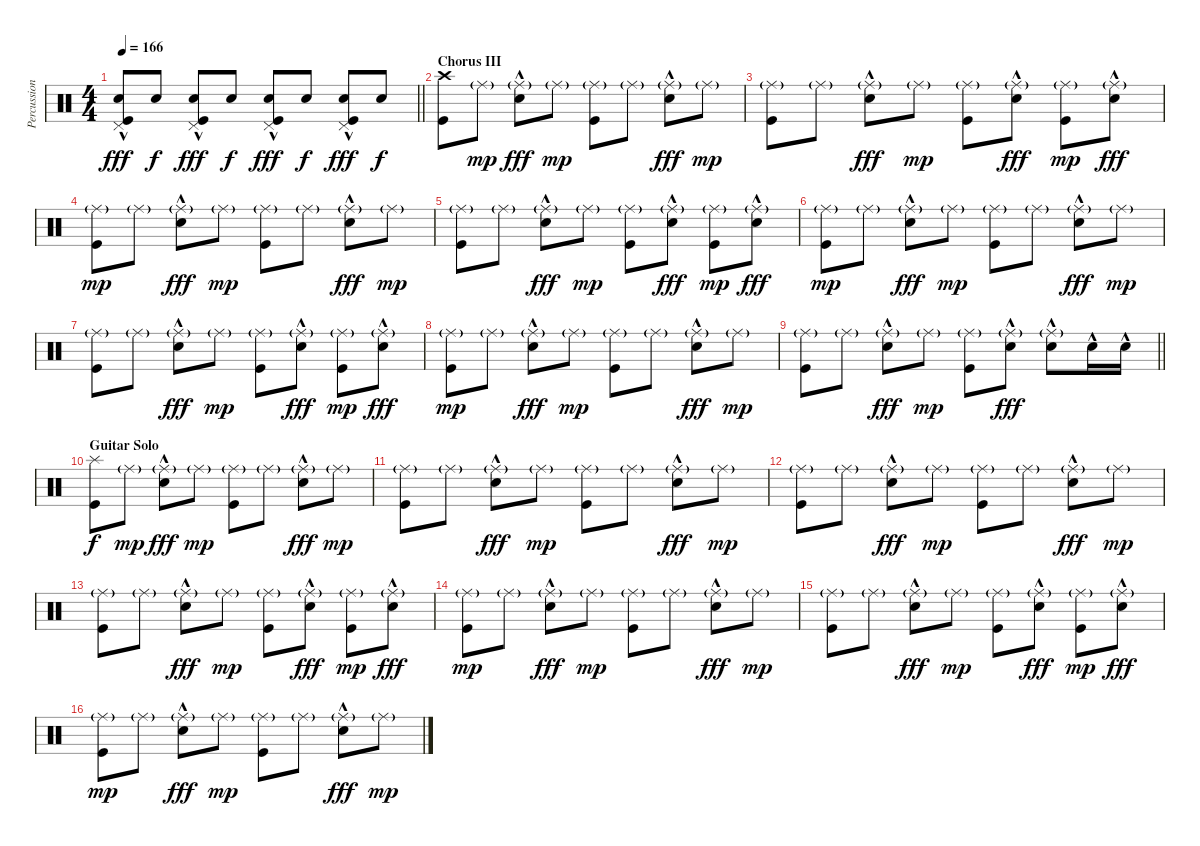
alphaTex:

\track ("Percussion" "Percussion") {instrument percussion}
\staff {score}
\articulation defaults
\ts (4 4)
\tempo 166
\clef neutral
\barLineRight lightlight
\ks c
("Pedal Hi-Hat (hit)" "Snare (hit) 2" "Kick (hit)"{hac}).8{dy fff} "Snare (hit) 2".8{dy f} ("Pedal Hi-Hat (hit)" "Snare (hit) 2" "Kick (hit)"{hac}).8{dy fff} "Snare (hit) 2".8{dy f} ("Pedal Hi-Hat (hit)" "Snare (hit) 2" "Kick (hit)"{hac}).8{dy fff} "Snare (hit) 2".8{dy f} ("Pedal Hi-Hat (hit)" "Snare (hit) 2" "Kick (hit)"{hac}).8{dy fff} "Snare (hit) 2".8{dy f} |
\section ("" "Chorus III")
("Crash high (hit)" "Kick (hit)").8 "Ride (middle)"{g}.8{dy mp} ("Ride (middle)"{g} "Snare (hit) 2"{hac}).8{dy fff} "Ride (middle)"{g}.8{dy mp} ("Ride (middle)"{g} "Kick (hit)").8 "Ride (middle)"{g}.8 ("Ride (middle)"{g} "Snare (hit) 2"{hac}).8{dy fff} "Ride (middle)"{g}.8{dy mp} |
("Ride (middle)"{g} "Kick (hit)").8 "Ride (middle)"{g}.8 ("Ride (middle)"{g} "Snare (hit) 2"{hac}).8{dy fff} "Ride (middle)"{g}.8{dy mp} ("Ride (middle)"{g} "Kick (hit)").8 ("Ride (middle)"{g} "Snare (hit) 2"{hac}).8{dy fff} ("Ride (middle)"{g} "Kick (hit)").8{dy mp} ("Ride (middle)"{g} "Snare (hit) 2"{hac}).8{dy fff} |
("Ride (middle)"{g} "Kick (hit)").8{dy mp} "Ride (middle)"{g}.8 ("Ride (middle)"{g} "Snare (hit) 2"{hac}).8{dy fff} "Ride (middle)"{g}.8{dy mp} ("Ride (middle)"{g} "Kick (hit)").8 "Ride (middle)"{g}.8 ("Ride (middle)"{g} "Snare (hit) 2"{hac}).8{dy fff} "Ride (middle)"{g}.8{dy mp} |
("Ride (middle)"{g} "Kick (hit)").8 "Ride (middle)"{g}.8 ("Ride (middle)"{g} "Snare (hit) 2"{hac}).8{dy fff} "Ride (middle)"{g}.8{dy mp} ("Ride (middle)"{g} "Kick (hit)").8 ("Ride (middle)"{g} "Snare (hit) 2"{hac}).8{dy fff} ("Ride (middle)"{g} "Kick (hit)").8{dy mp} ("Ride (middle)"{g} "Snare (hit) 2"{hac}).8{dy fff} |
("Ride (middle)"{g} "Kick (hit)").8{dy mp} "Ride (middle)"{g}.8 ("Ride (middle)"{g} "Snare (hit) 2"{hac}).8{dy fff} "Ride (middle)"{g}.8{dy mp} ("Ride (middle)"{g} "Kick (hit)").8 "Ride (middle)"{g}.8 ("Ride (middle)"{g} "Snare (hit) 2"{hac}).8{dy fff} "Ride (middle)"{g}.8{dy mp} |
("Ride (middle)"{g} "Kick (hit)").8 "Ride (middle)"{g}.8 ("Ride (middle)"{g} "Snare (hit) 2"{hac}).8{dy fff} "Ride (middle)"{g}.8{dy mp} ("Ride (middle)"{g} "Kick (hit)").8 ("Ride (middle)"{g} "Snare (hit) 2"{hac}).8{dy fff} ("Ride (middle)"{g} "Kick (hit)").8{dy mp} ("Ride (middle)"{g} "Snare (hit) 2"{hac}).8{dy fff} |
("Ride (middle)"{g} "Kick (hit)").8{dy mp} "Ride (middle)"{g}.8 ("Ride (middle)"{g} "Snare (hit) 2"{hac}).8{dy fff} "Ride (middle)"{g}.8{dy mp} ("Ride (middle)"{g} "Kick (hit)").8 "Ride (middle)"{g}.8 ("Ride (middle)"{g} "Snare (hit) 2"{hac}).8{dy fff} "Ride (middle)"{g}.8{dy mp} |
\barLineRight lightlight
("Ride (middle)"{g} "Kick (hit)").8 "Ride (middle)"{g}.8 ("Ride (middle)"{g} "Snare (hit) 2"{hac}).8{dy fff} "Ride (middle)"{g}.8{dy mp} ("Ride (middle)"{g} "Kick (hit)").8 ("Ride (middle)"{g} "Snare (hit) 2"{hac}).8{dy fff} ("Ride (middle)"{g} "Snare (hit) 2"{hac}).8 "Snare (hit) 2"{hac}.16 "Snare (hit) 2"{hac}.16 |
\section ("" "Guitar Solo")
("Splash (hit)" "Kick (hit)").8{dy f} "Ride (middle)"{g}.8{dy mp} ("Ride (middle)"{g} "Snare (hit) 2"{hac}).8{dy fff} "Ride (middle)"{g}.8{dy mp} ("Ride (middle)"{g} "Kick (hit)").8 "Ride (middle)"{g}.8 ("Ride (middle)"{g} "Snare (hit) 2"{hac}).8{dy fff} "Ride (middle)"{g}.8{dy mp} |
("Ride (middle)"{g} "Kick (hit)").8 "Ride (middle)"{g}.8 ("Ride (middle)"{g} "Snare (hit) 2"{hac}).8{dy fff} "Ride (middle)"{g}.8{dy mp} ("Ride (middle)"{g} "Kick (hit)").8 "Ride (middle)"{g}.8 ("Ride (middle)"{g} "Snare (hit) 2"{hac}).8{dy fff} "Ride (middle)"{g}.8{dy mp} |
("Ride (middle)"{g} "Kick (hit)").8 "Ride (middle)"{g}.8 ("Ride (middle)"{g} "Snare (hit) 2"{hac}).8{dy fff} "Ride (middle)"{g}.8{dy mp} ("Ride (middle)"{g} "Kick (hit)").8 "Ride (middle)"{g}.8 ("Ride (middle)"{g} "Snare (hit) 2"{hac}).8{dy fff} "Ride (middle)"{g}.8{dy mp} |
("Ride (middle)"{g} "Kick (hit)").8 "Ride (middle)"{g}.8 ("Ride (middle)"{g} "Snare (hit) 2"{hac}).8{dy fff} "Ride (middle)"{g}.8{dy mp} ("Ride (middle)"{g} "Kick (hit)").8 ("Ride (middle)"{g} "Snare (hit) 2"{hac}).8{dy fff} ("Ride (middle)"{g} "Kick (hit)").8{dy mp} ("Ride (middle)"{g} "Snare (hit) 2"{hac}).8{dy fff} |
("Ride (middle)"{g} "Kick (hit)").8{dy mp} "Ride (middle)"{g}.8 ("Ride (middle)"{g} "Snare (hit) 2"{hac}).8{dy fff} "Ride (middle)"{g}.8{dy mp} ("Ride (middle)"{g} "Kick (hit)").8 "Ride (middle)"{g}.8 ("Ride (middle)"{g} "Snare (hit) 2"{hac}).8{dy fff} "Ride (middle)"{g}.8{dy mp} |
("Ride (middle)"{g} "Kick (hit)").8 "Ride (middle)"{g}.8 ("Ride (middle)"{g} "Snare (hit) 2"{hac}).8{dy fff} "Ride (middle)"{g}.8{dy mp} ("Ride (middle)"{g} "Kick (hit)").8 ("Ride (middle)"{g} "Snare (hit) 2"{hac}).8{dy fff} ("Ride (middle)"{g} "Kick (hit)").8{dy mp} ("Ride (middle)"{g} "Snare (hit) 2"{hac}).8{dy fff} |
("Ride (middle)"{g} "Kick (hit)").8{dy mp} "Ride (middle)"{g}.8 ("Ride (middle)"{g} "Snare (hit) 2"{hac}).8{dy fff} "Ride (middle)"{g}.8{dy mp} ("Ride (middle)"{g} "Kick (hit)").8 "Ride (middle)"{g}.8 ("Ride (middle)"{g} "Snare (hit) 2"{hac}).8{dy fff} "Ride (middle)"{g}.8{dy mp}
